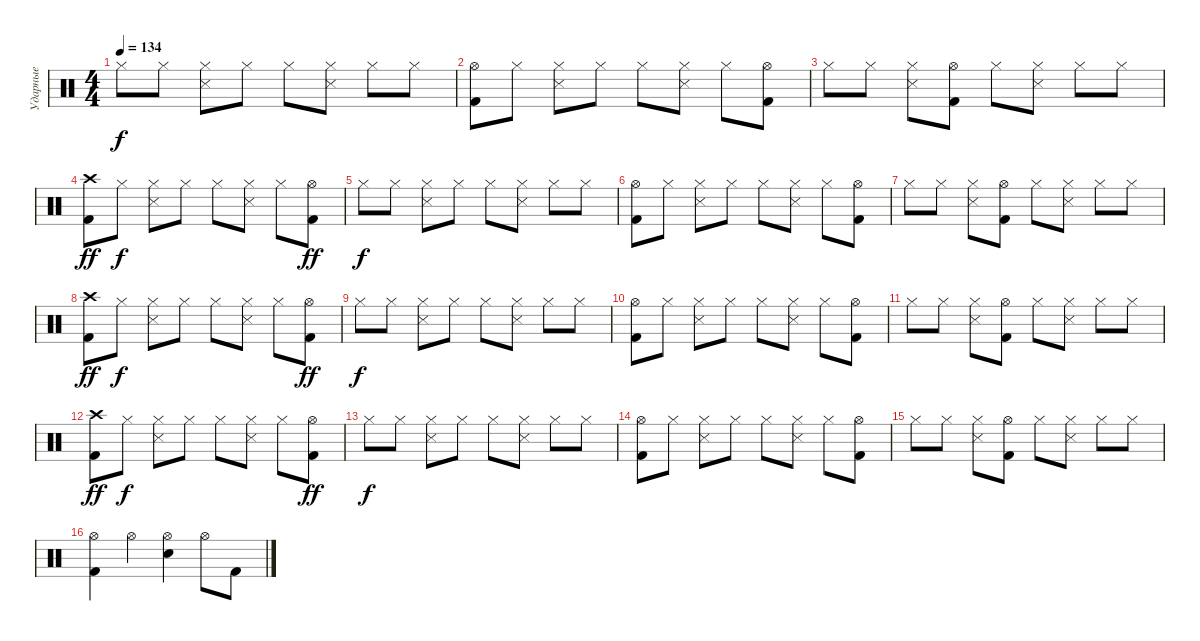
\track ("Ударные" "Ударные") {instrument percussion}
\staff {score}
\articulation defaults
\ts (4 4)
\tempo 134
\clef neutral
\ks c "Hi-Hat (closed)".8{dy f} "Hi-Hat (closed)".8
("Hi-Hat (closed)" "Snare (side stick) 3").8 "Hi-Hat (closed)".8 "Hi-Hat (closed)".8 ("Hi-Hat (closed)" "Snare (side stick) 3").8 "Hi-Hat (closed)".8 "Hi-Hat (closed)".8 |
("Hi-Hat (open)" "Kick (hit) 2").8 "Hi-Hat (closed)".8 ("Hi-Hat (closed)" "Snare (side stick) 3").8 "Hi-Hat (closed)".8 "Hi-Hat (closed)".8 ("Hi-Hat (closed)" "Snare (side stick) 3").8 "Hi-Hat (closed)".8 ("Hi-Hat (open)" "Kick (hit) 2").8 |
"Hi-Hat (closed)".8 "Hi-Hat (closed)".8 ("Hi-Hat (closed)" "Snare (side stick) 3").8 ("Hi-Hat (open)" "Kick (hit) 2").8 "Hi-Hat (closed)".8 ("Hi-Hat (closed)" "Snare (side stick) 3").8 "Hi-Hat (closed)".8 "Hi-Hat (closed)".8 |
("Crash high (hit)" "Kick (hit) 2").8{dy ff} "Hi-Hat (closed)".8{dy f} ("Hi-Hat (closed)" "Snare (side stick) 3").8 "Hi-Hat (closed)".8 "Hi-Hat (closed)".8 ("Hi-Hat (closed)" "Snare (side stick) 3").8 "Hi-Hat (closed)".8 ("Hi-Hat (open)" "Kick (hit) 2").8{dy ff} |
"Hi-Hat (closed)".8{dy f} "Hi-Hat (closed)".8 ("Hi-Hat (closed)" "Snare (side stick) 3").8 "Hi-Hat (closed)".8 "Hi-Hat (closed)".8 ("Hi-Hat (closed)" "Snare (side stick) 3").8 "Hi-Hat (closed)".8 "Hi-Hat (closed)".8 |
("Hi-Hat (open)" "Kick (hit) 2").8 "Hi-Hat (closed)".8 ("Hi-Hat (closed)" "Snare (side stick) 3").8 "Hi-Hat (closed)".8 "Hi-Hat (closed)".8 ("Hi-Hat (closed)" "Snare (side stick) 3").8 "Hi-Hat (closed)".8 ("Hi-Hat (open)" "Kick (hit) 2").8 |
"Hi-Hat (closed)".8 "Hi-Hat (closed)".8 ("Hi-Hat (closed)" "Snare (side stick) 3").8 ("Hi-Hat (open)" "Kick (hit) 2").8 "Hi-Hat (closed)".8 ("Hi-Hat (closed)" "Snare (side stick) 3").8 "Hi-Hat (closed)".8 "Hi-Hat (closed)".8 |
("Crash high (hit)" "Kick (hit) 2").8{dy ff} "Hi-Hat (closed)".8{dy f} ("Hi-Hat (closed)" "Snare (side stick) 3").8 "Hi-Hat (closed)".8 "Hi-Hat (closed)".8 ("Hi-Hat (closed)" "Snare (side stick) 3").8 "Hi-Hat (closed)".8 ("Hi-Hat (open)" "Kick (hit) 2").8{dy ff} |
"Hi-Hat (closed)".8{dy f} "Hi-Hat (closed)".8 ("Hi-Hat (closed)" "Snare (side stick) 3").8 "Hi-Hat (closed)".8 "Hi-Hat (closed)".8 ("Hi-Hat (closed)" "Snare (side stick) 3").8 "Hi-Hat (closed)".8 "Hi-Hat (closed)".8 |
("Hi-Hat (open)" "Kick (hit) 2").8 "Hi-Hat (closed)".8 ("Hi-Hat (closed)" "Snare (side stick) 3").8 "Hi-Hat (closed)".8 "Hi-Hat (closed)".8 ("Hi-Hat (closed)" "Snare (side stick) 3").8 "Hi-Hat (closed)".8 ("Hi-Hat (open)" "Kick (hit) 2").8 |
"Hi-Hat (closed)".8 "Hi-Hat (closed)".8 ("Hi-Hat (closed)" "Snare (side stick) 3").8 ("Hi-Hat (open)" "Kick (hit) 2").8 "Hi-Hat (closed)".8 ("Hi-Hat (closed)" "Snare (side stick) 3").8 "Hi-Hat (closed)".8 "Hi-Hat (closed)".8 |
("Crash high (hit)" "Kick (hit) 2").8{dy ff} "Hi-Hat (closed)".8{dy f} ("Hi-Hat (closed)" "Snare (side stick) 3").8 "Hi-Hat (closed)".8 "Hi-Hat (closed)".8 ("Hi-Hat (closed)" "Snare (side stick) 3").8 "Hi-Hat (closed)".8 ("Hi-Hat (open)" "Kick (hit) 2").8{dy ff} |
"Hi-Hat (closed)".8{dy f} "Hi-Hat (closed)".8 ("Hi-Hat (closed)" "Snare (side stick) 3").8 "Hi-Hat (closed)".8 "Hi-Hat (closed)".8 ("Hi-Hat (closed)" "Snare (side stick) 3").8 "Hi-Hat (closed)".8 "Hi-Hat (closed)".8 |
("Hi-Hat (open)" "Kick (hit) 2").8 "Hi-Hat (closed)".8 ("Hi-Hat (closed)" "Snare (side stick) 3").8 "Hi-Hat (closed)".8 "Hi-Hat (closed)".8 ("Hi-Hat (closed)" "Snare (side stick) 3").8 "Hi-Hat (closed)".8 ("Hi-Hat (open)" "Kick (hit) 2").8 |
"Hi-Hat (closed)".8 "Hi-Hat (closed)".8 ("Hi-Hat (closed)" "Snare (side stick) 3").8 ("Hi-Hat (open)" "Kick (hit) 2").8 "Hi-Hat (closed)".8 ("Hi-Hat (closed)" "Snare (side stick) 3").8 "Hi-Hat (closed)".8 "Hi-Hat (closed)".8 |
("Hi-Hat (open)" "Kick (hit) 2").4 "Hi-Hat (open)".4 ("Hi-Hat (open)" "Electric Snare (hit)").4 "Hi-Hat (open)".8 "Kick (hit) 2".8
